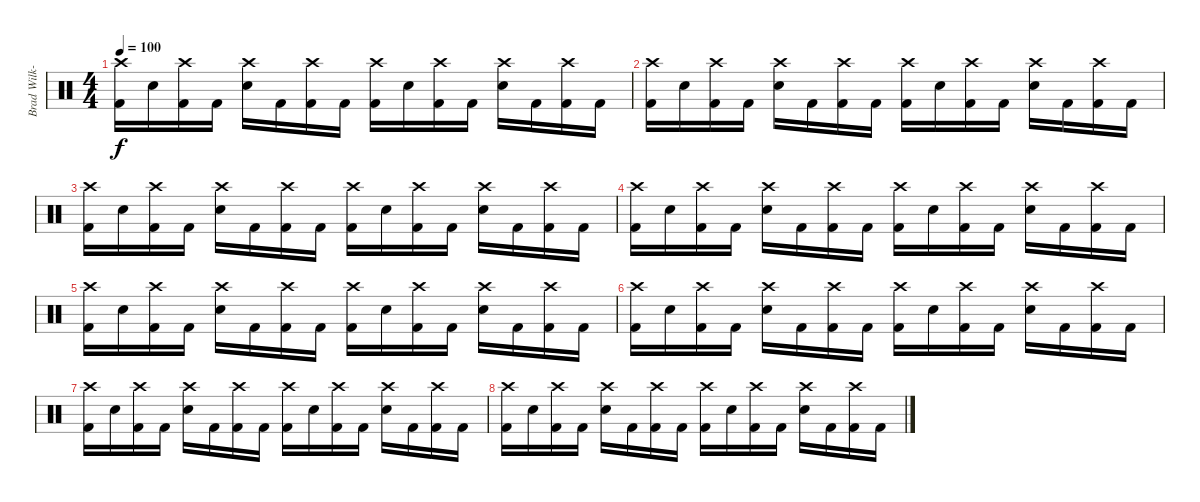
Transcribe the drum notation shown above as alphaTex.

\track ("Brad Wilk-Drums" "Brad Wilk-") {instrument percussion}
\staff {score}
\articulation defaults
\ts (4 4)
\tempo 100
\clef neutral
\ks c
("Crash high (hit)" "Kick (hit) 2").16{dy f} "Electric Snare (hit)".16 ("Crash high (hit)" "Kick (hit) 2").16 "Kick (hit) 2".16 ("Crash high (hit)" "Electric Snare (hit)").16 "Kick (hit) 2".16 ("Crash high (hit)" "Kick (hit) 2").16 "Kick (hit) 2".16 ("Crash high (hit)" "Kick (hit) 2").16 "Electric Snare (hit)".16 ("Crash high (hit)" "Kick (hit) 2").16 "Kick (hit) 2".16 ("Crash high (hit)" "Electric Snare (hit)").16 "Kick (hit) 2".16 ("Crash high (hit)" "Kick (hit) 2").16 "Kick (hit) 2".16 |
("Crash high (hit)" "Kick (hit) 2").16 "Electric Snare (hit)".16 ("Crash high (hit)" "Kick (hit) 2").16 "Kick (hit) 2".16 ("Crash high (hit)" "Electric Snare (hit)").16 "Kick (hit) 2".16 ("Crash high (hit)" "Kick (hit) 2").16 "Kick (hit) 2".16 ("Crash high (hit)" "Kick (hit) 2").16 "Electric Snare (hit)".16 ("Crash high (hit)" "Kick (hit) 2").16 "Kick (hit) 2".16 ("Crash high (hit)" "Electric Snare (hit)").16 "Kick (hit) 2".16 ("Crash high (hit)" "Kick (hit) 2").16 "Kick (hit) 2".16 |
("Crash high (hit)" "Kick (hit) 2").16 "Electric Snare (hit)".16 ("Crash high (hit)" "Kick (hit) 2").16 "Kick (hit) 2".16 ("Crash high (hit)" "Electric Snare (hit)").16 "Kick (hit) 2".16 ("Crash high (hit)" "Kick (hit) 2").16 "Kick (hit) 2".16 ("Crash high (hit)" "Kick (hit) 2").16 "Electric Snare (hit)".16 ("Crash high (hit)" "Kick (hit) 2").16 "Kick (hit) 2".16 ("Crash high (hit)" "Electric Snare (hit)").16 "Kick (hit) 2".16 ("Crash high (hit)" "Kick (hit) 2").16 "Kick (hit) 2".16 |
("Crash high (hit)" "Kick (hit) 2").16 "Electric Snare (hit)".16 ("Crash high (hit)" "Kick (hit) 2").16 "Kick (hit) 2".16 ("Crash high (hit)" "Electric Snare (hit)").16 "Kick (hit) 2".16 ("Crash high (hit)" "Kick (hit) 2").16 "Kick (hit) 2".16 ("Crash high (hit)" "Kick (hit) 2").16 "Electric Snare (hit)".16 ("Crash high (hit)" "Kick (hit) 2").16 "Kick (hit) 2".16 ("Crash high (hit)" "Electric Snare (hit)").16 "Kick (hit) 2".16 ("Crash high (hit)" "Kick (hit) 2").16 "Kick (hit) 2".16 |
("Crash high (hit)" "Kick (hit) 2").16 "Electric Snare (hit)".16 ("Crash high (hit)" "Kick (hit) 2").16 "Kick (hit) 2".16 ("Crash high (hit)" "Electric Snare (hit)").16 "Kick (hit) 2".16 ("Crash high (hit)" "Kick (hit) 2").16 "Kick (hit) 2".16 ("Crash high (hit)" "Kick (hit) 2").16 "Electric Snare (hit)".16 ("Crash high (hit)" "Kick (hit) 2").16 "Kick (hit) 2".16 ("Crash high (hit)" "Electric Snare (hit)").16 "Kick (hit) 2".16 ("Crash high (hit)" "Kick (hit) 2").16 "Kick (hit) 2".16 |
("Crash high (hit)" "Kick (hit) 2").16 "Electric Snare (hit)".16 ("Crash high (hit)" "Kick (hit) 2").16 "Kick (hit) 2".16 ("Crash high (hit)" "Electric Snare (hit)").16 "Kick (hit) 2".16 ("Crash high (hit)" "Kick (hit) 2").16 "Kick (hit) 2".16 ("Crash high (hit)" "Kick (hit) 2").16 "Electric Snare (hit)".16 ("Crash high (hit)" "Kick (hit) 2").16 "Kick (hit) 2".16 ("Crash high (hit)" "Electric Snare (hit)").16 "Kick (hit) 2".16 ("Crash high (hit)" "Kick (hit) 2").16 "Kick (hit) 2".16 |
("Crash high (hit)" "Kick (hit) 2").16 "Electric Snare (hit)".16 ("Crash high (hit)" "Kick (hit) 2").16 "Kick (hit) 2".16 ("Crash high (hit)" "Electric Snare (hit)").16 "Kick (hit) 2".16 ("Crash high (hit)" "Kick (hit) 2").16 "Kick (hit) 2".16 ("Crash high (hit)" "Kick (hit) 2").16 "Electric Snare (hit)".16 ("Crash high (hit)" "Kick (hit) 2").16 "Kick (hit) 2".16 ("Crash high (hit)" "Electric Snare (hit)").16 "Kick (hit) 2".16 ("Crash high (hit)" "Kick (hit) 2").16 "Kick (hit) 2".16 |
("Crash high (hit)" "Kick (hit) 2").16 "Electric Snare (hit)".16 ("Crash high (hit)" "Kick (hit) 2").16 "Kick (hit) 2".16 ("Crash high (hit)" "Electric Snare (hit)").16 "Kick (hit) 2".16 ("Crash high (hit)" "Kick (hit) 2").16 "Kick (hit) 2".16 ("Crash high (hit)" "Kick (hit) 2").16 "Electric Snare (hit)".16 ("Crash high (hit)" "Kick (hit) 2").16 "Kick (hit) 2".16 ("Crash high (hit)" "Electric Snare (hit)").16 "Kick (hit) 2".16 ("Crash high (hit)" "Kick (hit) 2").16 "Kick (hit) 2".16
